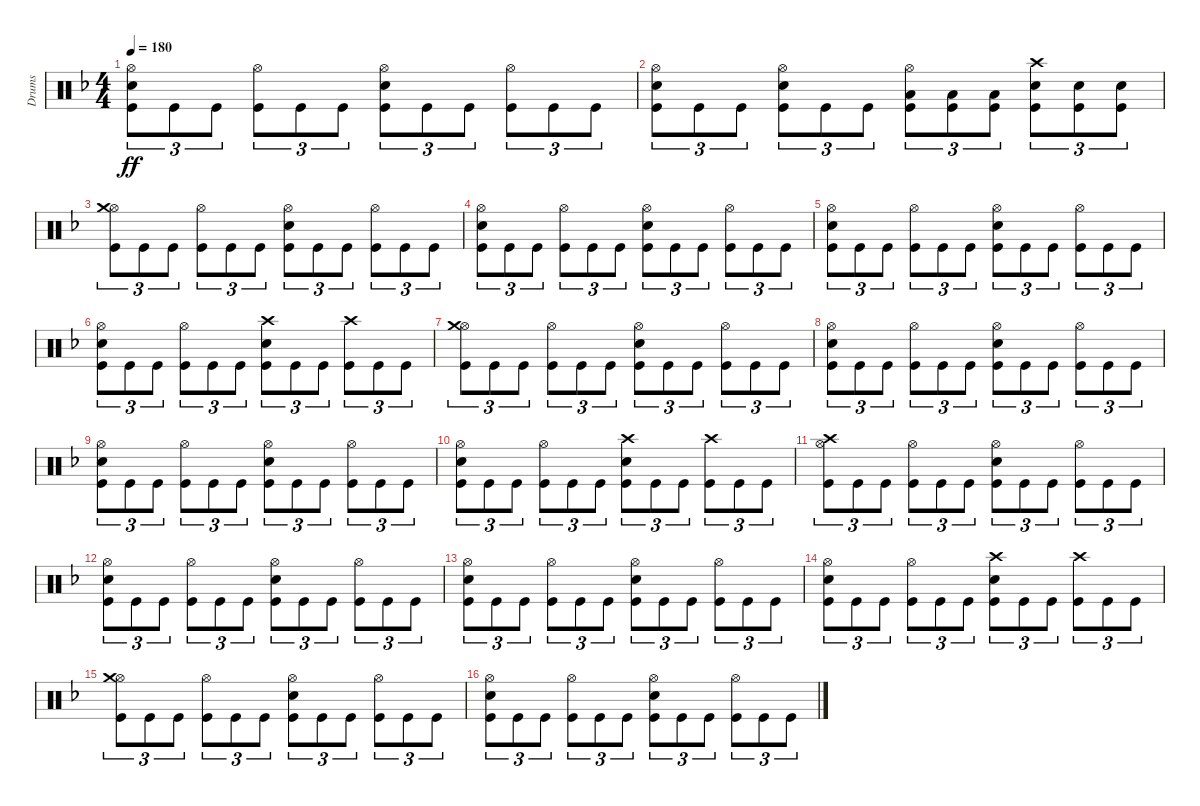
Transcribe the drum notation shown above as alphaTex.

\track ("Drums" "Drums") {instrument percussion}
\staff {score}
\articulation defaults
\ts (4 4)
\tempo 180
\clef neutral
\ks dminor
("Hi-Hat (open)" "Snare (hit) 2" "Kick (hit)").8{tu (3 2) dy ff} "Kick (hit)".8{tu (3 2)} "Kick (hit)".8{tu (3 2)} ("Hi-Hat (open)" "Kick (hit)").8{tu (3 2)} "Kick (hit)".8{tu (3 2)} "Kick (hit)".8{tu (3 2)} ("Hi-Hat (open)" "Snare (hit) 2" "Kick (hit)").8{tu (3 2)} "Kick (hit)".8{tu (3 2)} "Kick (hit)".8{tu (3 2)} ("Hi-Hat (open)" "Kick (hit)").8{tu (3 2)} "Kick (hit)".8{tu (3 2)} "Kick (hit)".8{tu (3 2)} |
("Hi-Hat (open)" "Snare (hit) 2" "Kick (hit)").8{tu (3 2)} "Kick (hit)".8{tu (3 2)} "Kick (hit)".8{tu (3 2)} ("Hi-Hat (open)" "Snare (hit) 2" "Kick (hit)").8{tu (3 2)} "Kick (hit)".8{tu (3 2)} "Kick (hit)".8{tu (3 2)} ("Hi-Hat (open)" "Low Tom (hit)" "Kick (hit)").8{tu (3 2)} ("Low Tom (hit)" "Kick (hit)").8{tu (3 2)} ("Low Tom (hit)" "Kick (hit)").8{tu (3 2)} ("Crash high (hit)" "Snare (hit) 2" "Kick (hit)").8{tu (3 2)} ("Snare (hit) 2" "Kick (hit)").8{tu (3 2)} ("Snare (hit) 2" "Kick (hit)").8{tu (3 2)} |
("Hi-Hat (open)" "Crash medium (hit)" "Kick (hit)").8{tu (3 2)} "Kick (hit)".8{tu (3 2)} "Kick (hit)".8{tu (3 2)} ("Hi-Hat (open)" "Kick (hit)").8{tu (3 2)} "Kick (hit)".8{tu (3 2)} "Kick (hit)".8{tu (3 2)} ("Hi-Hat (open)" "Snare (hit) 2" "Kick (hit)").8{tu (3 2)} "Kick (hit)".8{tu (3 2)} "Kick (hit)".8{tu (3 2)} ("Hi-Hat (open)" "Kick (hit)").8{tu (3 2)} "Kick (hit)".8{tu (3 2)} "Kick (hit)".8{tu (3 2)} |
("Hi-Hat (open)" "Snare (hit) 2" "Kick (hit)").8{tu (3 2)} "Kick (hit)".8{tu (3 2)} "Kick (hit)".8{tu (3 2)} ("Hi-Hat (open)" "Kick (hit)").8{tu (3 2)} "Kick (hit)".8{tu (3 2)} "Kick (hit)".8{tu (3 2)} ("Hi-Hat (open)" "Snare (hit) 2" "Kick (hit)").8{tu (3 2)} "Kick (hit)".8{tu (3 2)} "Kick (hit)".8{tu (3 2)} ("Hi-Hat (open)" "Kick (hit)").8{tu (3 2)} "Kick (hit)".8{tu (3 2)} "Kick (hit)".8{tu (3 2)} |
("Hi-Hat (open)" "Snare (hit) 2" "Kick (hit)").8{tu (3 2)} "Kick (hit)".8{tu (3 2)} "Kick (hit)".8{tu (3 2)} ("Hi-Hat (open)" "Kick (hit)").8{tu (3 2)} "Kick (hit)".8{tu (3 2)} "Kick (hit)".8{tu (3 2)} ("Hi-Hat (open)" "Snare (hit) 2" "Kick (hit)").8{tu (3 2)} "Kick (hit)".8{tu (3 2)} "Kick (hit)".8{tu (3 2)} ("Hi-Hat (open)" "Kick (hit)").8{tu (3 2)} "Kick (hit)".8{tu (3 2)} "Kick (hit)".8{tu (3 2)} |
("Hi-Hat (open)" "Snare (hit) 2" "Kick (hit)").8{tu (3 2)} "Kick (hit)".8{tu (3 2)} "Kick (hit)".8{tu (3 2)} ("Hi-Hat (open)" "Kick (hit)").8{tu (3 2)} "Kick (hit)".8{tu (3 2)} "Kick (hit)".8{tu (3 2)} ("Crash high (hit)" "Snare (hit) 2" "Kick (hit)").8{tu (3 2)} "Kick (hit)".8{tu (3 2)} "Kick (hit)".8{tu (3 2)} ("Crash high (hit)" "Kick (hit)").8{tu (3 2)} "Kick (hit)".8{tu (3 2)} "Kick (hit)".8{tu (3 2)} |
("Hi-Hat (open)" "Crash medium (hit)" "Kick (hit)").8{tu (3 2)} "Kick (hit)".8{tu (3 2)} "Kick (hit)".8{tu (3 2)} ("Hi-Hat (open)" "Kick (hit)").8{tu (3 2)} "Kick (hit)".8{tu (3 2)} "Kick (hit)".8{tu (3 2)} ("Hi-Hat (open)" "Snare (hit) 2" "Kick (hit)").8{tu (3 2)} "Kick (hit)".8{tu (3 2)} "Kick (hit)".8{tu (3 2)} ("Hi-Hat (open)" "Kick (hit)").8{tu (3 2)} "Kick (hit)".8{tu (3 2)} "Kick (hit)".8{tu (3 2)} |
("Hi-Hat (open)" "Snare (hit) 2" "Kick (hit)").8{tu (3 2)} "Kick (hit)".8{tu (3 2)} "Kick (hit)".8{tu (3 2)} ("Hi-Hat (open)" "Kick (hit)").8{tu (3 2)} "Kick (hit)".8{tu (3 2)} "Kick (hit)".8{tu (3 2)} ("Hi-Hat (open)" "Snare (hit) 2" "Kick (hit)").8{tu (3 2)} "Kick (hit)".8{tu (3 2)} "Kick (hit)".8{tu (3 2)} ("Hi-Hat (open)" "Kick (hit)").8{tu (3 2)} "Kick (hit)".8{tu (3 2)} "Kick (hit)".8{tu (3 2)} |
("Hi-Hat (open)" "Snare (hit) 2" "Kick (hit)").8{tu (3 2)} "Kick (hit)".8{tu (3 2)} "Kick (hit)".8{tu (3 2)} ("Hi-Hat (open)" "Kick (hit)").8{tu (3 2)} "Kick (hit)".8{tu (3 2)} "Kick (hit)".8{tu (3 2)} ("Hi-Hat (open)" "Snare (hit) 2" "Kick (hit)").8{tu (3 2)} "Kick (hit)".8{tu (3 2)} "Kick (hit)".8{tu (3 2)} ("Hi-Hat (open)" "Kick (hit)").8{tu (3 2)} "Kick (hit)".8{tu (3 2)} "Kick (hit)".8{tu (3 2)} |
("Hi-Hat (open)" "Snare (hit) 2" "Kick (hit)").8{tu (3 2)} "Kick (hit)".8{tu (3 2)} "Kick (hit)".8{tu (3 2)} ("Hi-Hat (open)" "Kick (hit)").8{tu (3 2)} "Kick (hit)".8{tu (3 2)} "Kick (hit)".8{tu (3 2)} ("Crash high (hit)" "Snare (hit) 2" "Kick (hit)").8{tu (3 2)} "Kick (hit)".8{tu (3 2)} "Kick (hit)".8{tu (3 2)} ("Crash high (hit)" "Kick (hit)").8{tu (3 2)} "Kick (hit)".8{tu (3 2)} "Kick (hit)".8{tu (3 2)} |
("Hi-Hat (open)" "Crash high (hit)" "Kick (hit)").8{tu (3 2)} "Kick (hit)".8{tu (3 2)} "Kick (hit)".8{tu (3 2)} ("Hi-Hat (open)" "Kick (hit)").8{tu (3 2)} "Kick (hit)".8{tu (3 2)} "Kick (hit)".8{tu (3 2)} ("Hi-Hat (open)" "Snare (hit) 2" "Kick (hit)").8{tu (3 2)} "Kick (hit)".8{tu (3 2)} "Kick (hit)".8{tu (3 2)} ("Hi-Hat (open)" "Kick (hit)").8{tu (3 2)} "Kick (hit)".8{tu (3 2)} "Kick (hit)".8{tu (3 2)} |
("Hi-Hat (open)" "Snare (hit) 2" "Kick (hit)").8{tu (3 2)} "Kick (hit)".8{tu (3 2)} "Kick (hit)".8{tu (3 2)} ("Hi-Hat (open)" "Kick (hit)").8{tu (3 2)} "Kick (hit)".8{tu (3 2)} "Kick (hit)".8{tu (3 2)} ("Hi-Hat (open)" "Snare (hit) 2" "Kick (hit)").8{tu (3 2)} "Kick (hit)".8{tu (3 2)} "Kick (hit)".8{tu (3 2)} ("Hi-Hat (open)" "Kick (hit)").8{tu (3 2)} "Kick (hit)".8{tu (3 2)} "Kick (hit)".8{tu (3 2)} |
("Hi-Hat (open)" "Snare (hit) 2" "Kick (hit)").8{tu (3 2)} "Kick (hit)".8{tu (3 2)} "Kick (hit)".8{tu (3 2)} ("Hi-Hat (open)" "Kick (hit)").8{tu (3 2)} "Kick (hit)".8{tu (3 2)} "Kick (hit)".8{tu (3 2)} ("Hi-Hat (open)" "Snare (hit) 2" "Kick (hit)").8{tu (3 2)} "Kick (hit)".8{tu (3 2)} "Kick (hit)".8{tu (3 2)} ("Hi-Hat (open)" "Kick (hit)").8{tu (3 2)} "Kick (hit)".8{tu (3 2)} "Kick (hit)".8{tu (3 2)} |
("Hi-Hat (open)" "Snare (hit) 2" "Kick (hit)").8{tu (3 2)} "Kick (hit)".8{tu (3 2)} "Kick (hit)".8{tu (3 2)} ("Hi-Hat (open)" "Kick (hit)").8{tu (3 2)} "Kick (hit)".8{tu (3 2)} "Kick (hit)".8{tu (3 2)} ("Crash high (hit)" "Snare (hit) 2" "Kick (hit)").8{tu (3 2)} "Kick (hit)".8{tu (3 2)} "Kick (hit)".8{tu (3 2)} ("Crash high (hit)" "Kick (hit)").8{tu (3 2)} "Kick (hit)".8{tu (3 2)} "Kick (hit)".8{tu (3 2)} |
("Hi-Hat (open)" "Crash medium (hit)" "Kick (hit)").8{tu (3 2)} "Kick (hit)".8{tu (3 2)} "Kick (hit)".8{tu (3 2)} ("Hi-Hat (open)" "Kick (hit)").8{tu (3 2)} "Kick (hit)".8{tu (3 2)} "Kick (hit)".8{tu (3 2)} ("Hi-Hat (open)" "Snare (hit) 2" "Kick (hit)").8{tu (3 2)} "Kick (hit)".8{tu (3 2)} "Kick (hit)".8{tu (3 2)} ("Hi-Hat (open)" "Kick (hit)").8{tu (3 2)} "Kick (hit)".8{tu (3 2)} "Kick (hit)".8{tu (3 2)} |
("Hi-Hat (open)" "Snare (hit) 2" "Kick (hit)").8{tu (3 2)} "Kick (hit)".8{tu (3 2)} "Kick (hit)".8{tu (3 2)} ("Hi-Hat (open)" "Kick (hit)").8{tu (3 2)} "Kick (hit)".8{tu (3 2)} "Kick (hit)".8{tu (3 2)} ("Hi-Hat (open)" "Snare (hit) 2" "Kick (hit)").8{tu (3 2)} "Kick (hit)".8{tu (3 2)} "Kick (hit)".8{tu (3 2)} ("Hi-Hat (open)" "Kick (hit)").8{tu (3 2)} "Kick (hit)".8{tu (3 2)} "Kick (hit)".8{tu (3 2)}
